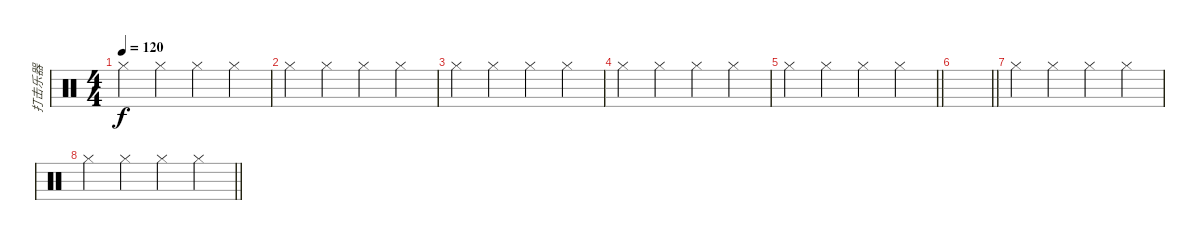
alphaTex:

\track ("打击乐器" "打击乐器") {instrument percussion}
\staff {score}
\articulation defaults
\ts (4 4)
\tempo 120
\clef neutral
\ks c "Hi-Hat (closed)".4{dy f} "Hi-Hat (closed)".4 "Hi-Hat (closed)".4 "Hi-Hat (closed)".4
|
"Hi-Hat (closed)".4 "Hi-Hat (closed)".4 "Hi-Hat (closed)".4 "Hi-Hat (closed)".4 |
"Hi-Hat (closed)".4 "Hi-Hat (closed)".4 "Hi-Hat (closed)".4 "Hi-Hat (closed)".4 |
"Hi-Hat (closed)".4 "Hi-Hat (closed)".4 "Hi-Hat (closed)".4 "Hi-Hat (closed)".4 |
\barLineRight lightlight "Hi-Hat (closed)".4 "Hi-Hat (closed)".4 "Hi-Hat (closed)".4 "Hi-Hat (closed)".4
|
\barLineRight lightlight
|
"Hi-Hat (closed)".4 "Hi-Hat (closed)".4 "Hi-Hat (closed)".4 "Hi-Hat (closed)".4 |
\barLineRight lightlight "Hi-Hat (closed)".4 "Hi-Hat (closed)".4 "Hi-Hat (closed)".4 "Hi-Hat (closed)".4
